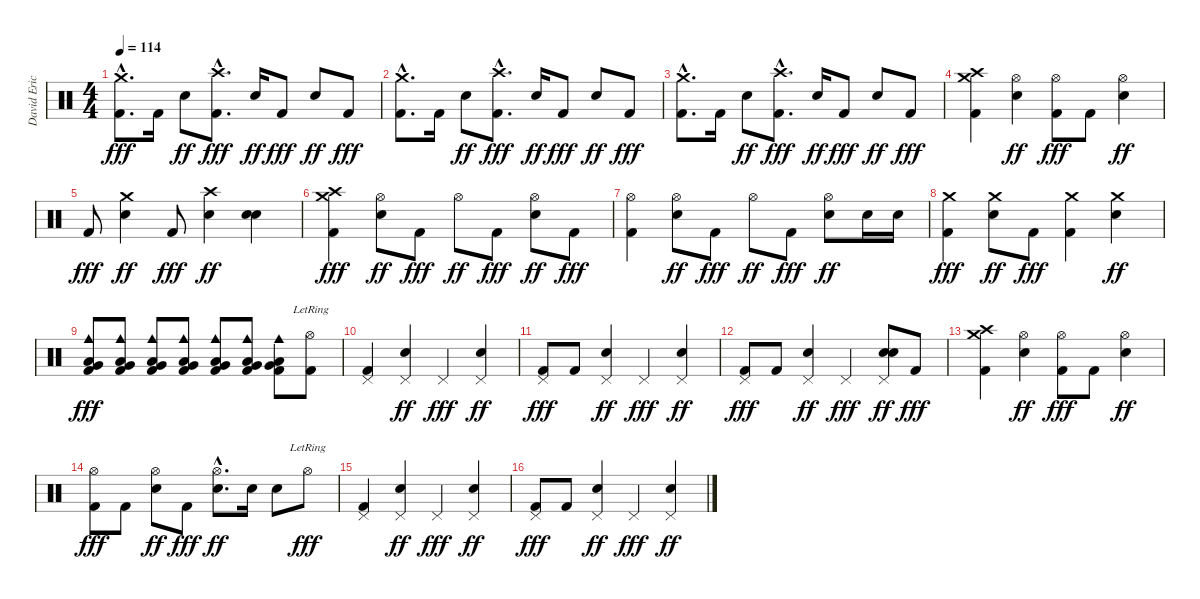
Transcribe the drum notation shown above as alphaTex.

\track ("David Eric Grohl" "David Eric") {instrument percussion}
\staff {score}
\articulation defaults
\ts (4 4)
\tempo 114
\clef neutral
\ks c
("Crash medium (hit)"{hac} "Kick (hit) 2"{hac}).8{d dy fff} "Kick (hit) 2".16 "Electric Snare (hit)".8{dy ff} ("Crash high (hit)"{hac} "Kick (hit) 2"{hac}).8{d dy fff} "Electric Snare (hit)".16{dy ff} "Kick (hit) 2".8{dy fff} "Electric Snare (hit)".8{dy ff} "Kick (hit) 2".8{dy fff} |
("Crash medium (hit)"{hac} "Kick (hit) 2"{hac}).8{d} "Kick (hit) 2".16 "Electric Snare (hit)".8{dy ff} ("Crash high (hit)"{hac} "Kick (hit) 2"{hac}).8{d dy fff} "Electric Snare (hit)".16{dy ff} "Kick (hit) 2".8{dy fff} "Electric Snare (hit)".8{dy ff} "Kick (hit) 2".8{dy fff} |
("Crash medium (hit)"{hac} "Kick (hit) 2"{hac}).8{d} "Kick (hit) 2".16 "Electric Snare (hit)".8{dy ff} ("Crash high (hit)"{hac} "Kick (hit) 2"{hac}).8{d dy fff} "Electric Snare (hit)".16{dy ff} "Kick (hit) 2".8{dy fff} "Electric Snare (hit)".8{dy ff} "Kick (hit) 2".8{dy fff} |
("Crash high (hit)" "Crash medium (hit)" "Kick (hit) 2").4 ("Hi-Hat (open)" "Electric Snare (hit)").4{dy ff} ("Hi-Hat (open)" "Kick (hit) 2").8{dy fff} "Kick (hit) 2".8 ("Hi-Hat (open)" "Electric Snare (hit)").4{dy ff} |
"Kick (hit) 2".8{dy fff} ("Crash medium (hit)" "Electric Snare (hit)").4{dy ff} "Kick (hit) 2".8{dy fff} ("Crash high (hit)" "Electric Snare (hit)").4{dy ff} ("Electric Snare (hit)" "Electric Snare (hit)").4 |
("Crash medium (hit)" "Crash high (hit)" "Kick (hit) 2").4{dy fff} ("Hi-Hat (open)" "Electric Snare (hit)").8{dy ff} "Kick (hit) 2".8{dy fff} "Hi-Hat (open)".8{dy ff} "Kick (hit) 2".8{dy fff} ("Hi-Hat (open)" "Electric Snare (hit)").8{dy ff} "Kick (hit) 2".8{dy fff} |
("Hi-Hat (open)" "Kick (hit) 2").4 ("Hi-Hat (open)" "Electric Snare (hit)").8{dy ff} "Kick (hit) 2".8{dy fff} "Hi-Hat (open)".8{dy ff} "Kick (hit) 2".8{dy fff} ("Hi-Hat (open)" "Electric Snare (hit)").8{dy ff} "Electric Snare (hit)".16 "Electric Snare (hit)".16 |
("Crash medium (hit)" "Kick (hit) 2").4{dy fff} ("Crash medium (hit)" "Electric Snare (hit)").8{dy ff} "Kick (hit) 2".8{dy fff} ("Crash medium (hit)" "Kick (hit) 2").4 ("Crash medium (hit)" "Electric Snare (hit)").4{dy ff} |
("Cowbell medium (hit)" "Low Tom (hit)" "Very Low Tom (hit)" "Kick (hit) 2").8{dy fff} ("Cowbell medium (hit)" "Low Tom (hit)" "Very Low Tom (hit)" "Kick (hit) 2").8 ("Cowbell medium (hit)" "Low Tom (hit)" "Very Low Tom (hit)" "Kick (hit) 2").8 ("Cowbell medium (hit)" "Low Tom (hit)" "Very Low Tom (hit)" "Kick (hit) 2").8 ("Cowbell medium (hit)" "Low Tom (hit)" "Very Low Tom (hit)" "Kick (hit) 2").8 ("Cowbell medium (hit)" "Low Tom (hit)" "Very Low Tom (hit)" "Kick (hit) 2").8 ("Cowbell medium (hit)" "Low Tom (hit)" "Very Low Tom (hit)" "Kick (hit) 2").8 ("Hi-Hat (open)"{lr} "Kick (hit) 2").8 |
("Pedal Hi-Hat (hit)" "Kick (hit) 2").4 ("Pedal Hi-Hat (hit)" "Electric Snare (hit)").4{dy ff} "Pedal Hi-Hat (hit)".4{dy fff} ("Pedal Hi-Hat (hit)" "Electric Snare (hit)").4{dy ff} |
("Pedal Hi-Hat (hit)" "Kick (hit) 2").8{dy fff} "Kick (hit) 2".8 ("Pedal Hi-Hat (hit)" "Electric Snare (hit)").4{dy ff} "Pedal Hi-Hat (hit)".4{dy fff} ("Pedal Hi-Hat (hit)" "Electric Snare (hit)").4{dy ff} |
("Pedal Hi-Hat (hit)" "Kick (hit) 2").8{dy fff} "Kick (hit) 2".8 ("Pedal Hi-Hat (hit)" "Electric Snare (hit)").4{dy ff} "Pedal Hi-Hat (hit)".4{dy fff} ("Pedal Hi-Hat (hit)" "Electric Snare (hit)" "Electric Snare (hit)").8{dy ff} "Kick (hit) 2".8{dy fff} |
("Crash medium (hit)" "Crash high (hit)" "Kick (hit) 2").4 ("Hi-Hat (open)" "Electric Snare (hit)").4{dy ff} ("Hi-Hat (open)" "Kick (hit) 2").8{dy fff} "Kick (hit) 2".8 ("Hi-Hat (open)" "Electric Snare (hit)").4{dy ff} |
("Hi-Hat (open)" "Kick (hit) 2").8{dy fff} "Kick (hit) 2".8 ("Hi-Hat (open)" "Electric Snare (hit)").8{dy ff} "Kick (hit) 2".8{dy fff} ("Hi-Hat (open)"{hac} "Electric Snare (hit)"{hac}).8{d dy ff} "Electric Snare (hit)".16 "Electric Snare (hit)".8 "Hi-Hat (open)"{lr}.8{dy fff} |
("Pedal Hi-Hat (hit)" "Kick (hit) 2").4 ("Pedal Hi-Hat (hit)" "Electric Snare (hit)").4{dy ff} "Pedal Hi-Hat (hit)".4{dy fff} ("Pedal Hi-Hat (hit)" "Electric Snare (hit)").4{dy ff} |
("Pedal Hi-Hat (hit)" "Kick (hit) 2").8{dy fff} "Kick (hit) 2".8 ("Pedal Hi-Hat (hit)" "Electric Snare (hit)").4{dy ff} "Pedal Hi-Hat (hit)".4{dy fff} ("Pedal Hi-Hat (hit)" "Electric Snare (hit)").4{dy ff}
